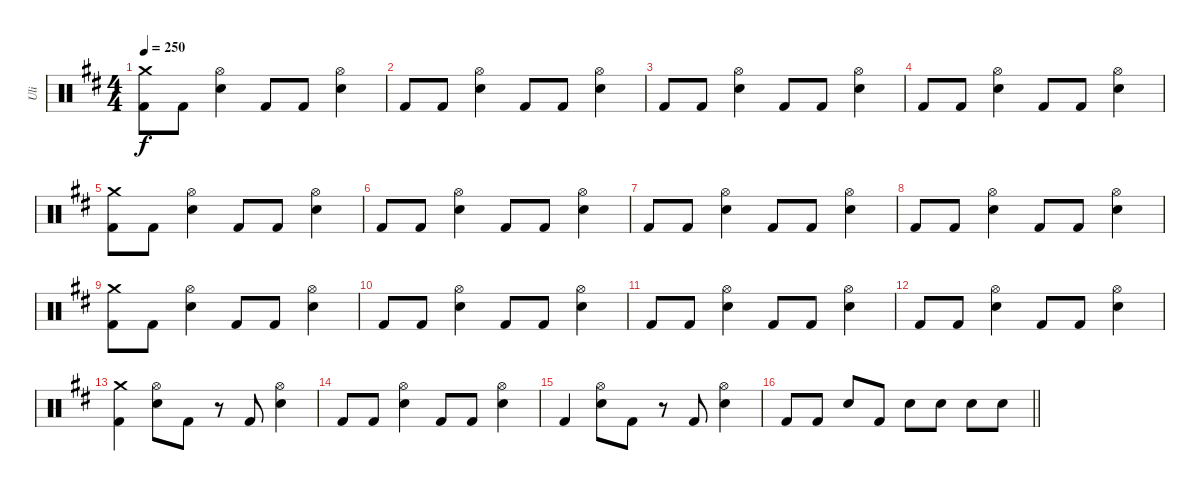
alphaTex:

\track ("Uli" "Uli") {instrument percussion}
\staff {score}
\articulation defaults
\ts (4 4)
\tempo 250
\clef neutral
\ks d
("Crash medium (hit)" "Kick (hit) 2").8{dy f} "Kick (hit) 2".8 ("Hi-Hat (open)" "Snare (hit) 2").4 "Kick (hit) 2".8 "Kick (hit) 2".8 ("Hi-Hat (open)" "Snare (hit) 2").4 |
"Kick (hit) 2".8 "Kick (hit) 2".8 ("Hi-Hat (open)" "Snare (hit) 2").4 "Kick (hit) 2".8 "Kick (hit) 2".8 ("Hi-Hat (open)" "Snare (hit) 2").4 |
"Kick (hit) 2".8 "Kick (hit) 2".8 ("Hi-Hat (open)" "Snare (hit) 2").4 "Kick (hit) 2".8 "Kick (hit) 2".8 ("Hi-Hat (open)" "Snare (hit) 2").4 |
"Kick (hit) 2".8 "Kick (hit) 2".8 ("Hi-Hat (open)" "Snare (hit) 2").4 "Kick (hit) 2".8 "Kick (hit) 2".8 ("Hi-Hat (open)" "Snare (hit) 2").4 |
("Crash medium (hit)" "Kick (hit) 2").8 "Kick (hit) 2".8 ("Hi-Hat (open)" "Snare (hit) 2").4 "Kick (hit) 2".8 "Kick (hit) 2".8 ("Hi-Hat (open)" "Snare (hit) 2").4 |
"Kick (hit) 2".8 "Kick (hit) 2".8 ("Hi-Hat (open)" "Snare (hit) 2").4 "Kick (hit) 2".8 "Kick (hit) 2".8 ("Hi-Hat (open)" "Snare (hit) 2").4 |
"Kick (hit) 2".8 "Kick (hit) 2".8 ("Hi-Hat (open)" "Snare (hit) 2").4 "Kick (hit) 2".8 "Kick (hit) 2".8 ("Hi-Hat (open)" "Snare (hit) 2").4 |
"Kick (hit) 2".8 "Kick (hit) 2".8 ("Hi-Hat (open)" "Snare (hit) 2").4 "Kick (hit) 2".8 "Kick (hit) 2".8 ("Hi-Hat (open)" "Snare (hit) 2").4 |
("Crash medium (hit)" "Kick (hit) 2").8 "Kick (hit) 2".8 ("Hi-Hat (open)" "Snare (hit) 2").4 "Kick (hit) 2".8 "Kick (hit) 2".8 ("Hi-Hat (open)" "Snare (hit) 2").4 |
"Kick (hit) 2".8 "Kick (hit) 2".8 ("Hi-Hat (open)" "Snare (hit) 2").4 "Kick (hit) 2".8 "Kick (hit) 2".8 ("Hi-Hat (open)" "Snare (hit) 2").4 |
"Kick (hit) 2".8 "Kick (hit) 2".8 ("Hi-Hat (open)" "Snare (hit) 2").4 "Kick (hit) 2".8 "Kick (hit) 2".8 ("Hi-Hat (open)" "Snare (hit) 2").4 |
"Kick (hit) 2".8 "Kick (hit) 2".8 ("Hi-Hat (open)" "Snare (hit) 2").4 "Kick (hit) 2".8 "Kick (hit) 2".8 ("Hi-Hat (open)" "Snare (hit) 2").4 |
("Crash medium (hit)" "Kick (hit) 2").4 ("Hi-Hat (open)" "Snare (hit) 2").8 "Kick (hit) 2".8 r.8 "Kick (hit) 2".8 ("Hi-Hat (open)" "Snare (hit) 2").4 |
"Kick (hit) 2".8 "Kick (hit) 2".8 ("Hi-Hat (open)" "Snare (hit) 2").4 "Kick (hit) 2".8 "Kick (hit) 2".8 ("Hi-Hat (open)" "Snare (hit) 2").4 |
"Kick (hit) 2".4 ("Hi-Hat (open)" "Snare (hit) 2").8 "Kick (hit) 2".8 r.8 "Kick (hit) 2".8 ("Hi-Hat (open)" "Snare (hit) 2").4 |
\barLineRight lightlight "Kick (hit) 2".8 "Kick (hit) 2".8 "Snare (hit) 2".8 "Kick (hit) 2".8 "Snare (hit) 2".8 "Snare (hit) 2".8 "Snare (hit) 2".8 "Snare (hit) 2".8
